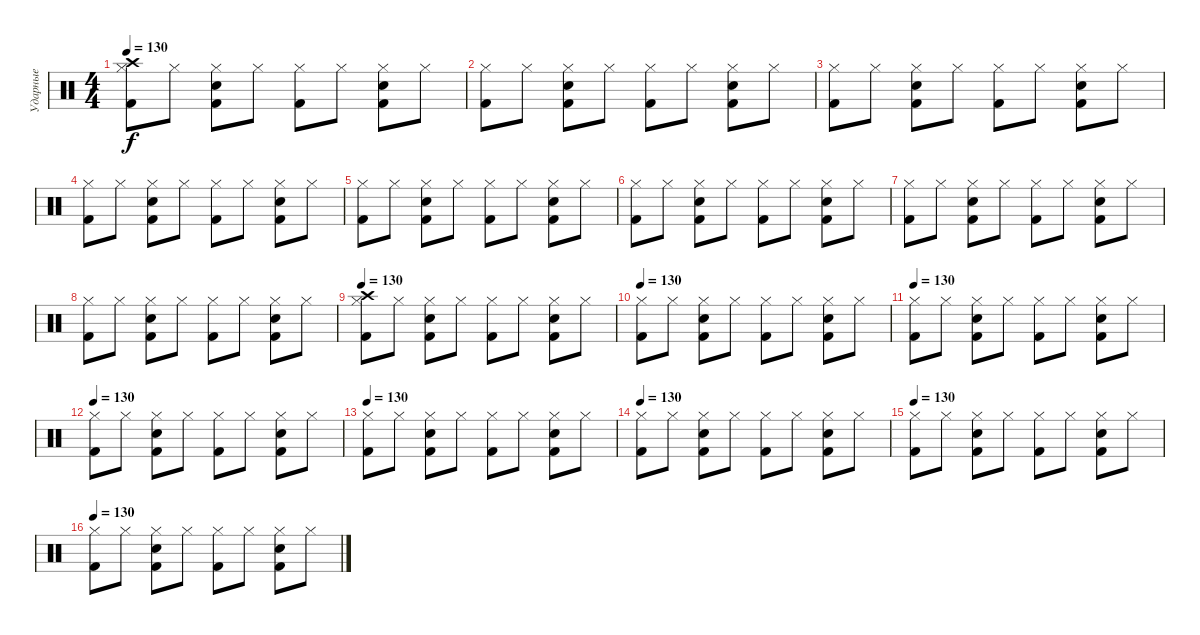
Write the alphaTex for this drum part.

\track ("Ударные" "Ударные") {instrument percussion}
\staff {score}
\articulation defaults
\ts (4 4)
\tempo 130
\clef neutral
\ks c
("Crash high (hit)" "Hi-Hat (closed)" "Kick (hit) 2").8{dy f} "Hi-Hat (closed)".8 ("Hi-Hat (closed)" "Snare (hit) 2" "Kick (hit) 2").8 "Hi-Hat (closed)".8 ("Hi-Hat (closed)" "Kick (hit) 2").8 "Hi-Hat (closed)".8 ("Hi-Hat (closed)" "Snare (hit) 2" "Kick (hit) 2").8 "Hi-Hat (closed)".8 |
("Hi-Hat (closed)" "Kick (hit) 2").8 "Hi-Hat (closed)".8 ("Hi-Hat (closed)" "Snare (hit) 2" "Kick (hit) 2").8 "Hi-Hat (closed)".8 ("Hi-Hat (closed)" "Kick (hit) 2").8 "Hi-Hat (closed)".8 ("Hi-Hat (closed)" "Snare (hit) 2" "Kick (hit) 2").8 "Hi-Hat (closed)".8 |
("Hi-Hat (closed)" "Kick (hit) 2").8 "Hi-Hat (closed)".8 ("Hi-Hat (closed)" "Snare (hit) 2" "Kick (hit) 2").8 "Hi-Hat (closed)".8 ("Hi-Hat (closed)" "Kick (hit) 2").8 "Hi-Hat (closed)".8 ("Hi-Hat (closed)" "Snare (hit) 2" "Kick (hit) 2").8 "Hi-Hat (closed)".8 |
("Hi-Hat (closed)" "Kick (hit) 2").8 "Hi-Hat (closed)".8 ("Hi-Hat (closed)" "Snare (hit) 2" "Kick (hit) 2").8 "Hi-Hat (closed)".8 ("Hi-Hat (closed)" "Kick (hit) 2").8 "Hi-Hat (closed)".8 ("Hi-Hat (closed)" "Snare (hit) 2" "Kick (hit) 2").8 "Hi-Hat (closed)".8 |
("Hi-Hat (closed)" "Kick (hit) 2").8 "Hi-Hat (closed)".8 ("Hi-Hat (closed)" "Snare (hit) 2" "Kick (hit) 2").8 "Hi-Hat (closed)".8 ("Hi-Hat (closed)" "Kick (hit) 2").8 "Hi-Hat (closed)".8 ("Hi-Hat (closed)" "Snare (hit) 2" "Kick (hit) 2").8 "Hi-Hat (closed)".8 |
("Hi-Hat (closed)" "Kick (hit) 2").8 "Hi-Hat (closed)".8 ("Hi-Hat (closed)" "Snare (hit) 2" "Kick (hit) 2").8 "Hi-Hat (closed)".8 ("Hi-Hat (closed)" "Kick (hit) 2").8 "Hi-Hat (closed)".8 ("Hi-Hat (closed)" "Snare (hit) 2" "Kick (hit) 2").8 "Hi-Hat (closed)".8 |
("Hi-Hat (closed)" "Kick (hit) 2").8 "Hi-Hat (closed)".8 ("Hi-Hat (closed)" "Snare (hit) 2" "Kick (hit) 2").8 "Hi-Hat (closed)".8 ("Hi-Hat (closed)" "Kick (hit) 2").8 "Hi-Hat (closed)".8 ("Hi-Hat (closed)" "Snare (hit) 2" "Kick (hit) 2").8 "Hi-Hat (closed)".8 |
("Hi-Hat (closed)" "Kick (hit) 2").8 "Hi-Hat (closed)".8 ("Hi-Hat (closed)" "Snare (hit) 2" "Kick (hit) 2").8 "Hi-Hat (closed)".8 ("Hi-Hat (closed)" "Kick (hit) 2").8 "Hi-Hat (closed)".8 ("Hi-Hat (closed)" "Snare (hit) 2" "Kick (hit) 2").8 "Hi-Hat (closed)".8 |
\tempo 130
("Crash high (hit)" "Hi-Hat (closed)" "Kick (hit) 2").8 "Hi-Hat (closed)".8 ("Hi-Hat (closed)" "Snare (hit) 2" "Kick (hit) 2").8 "Hi-Hat (closed)".8 ("Hi-Hat (closed)" "Kick (hit) 2").8 "Hi-Hat (closed)".8 ("Hi-Hat (closed)" "Snare (hit) 2" "Kick (hit) 2").8 "Hi-Hat (closed)".8 |
\tempo 130
("Hi-Hat (closed)" "Kick (hit) 2").8 "Hi-Hat (closed)".8 ("Hi-Hat (closed)" "Snare (hit) 2" "Kick (hit) 2").8 "Hi-Hat (closed)".8 ("Hi-Hat (closed)" "Kick (hit) 2").8 "Hi-Hat (closed)".8 ("Hi-Hat (closed)" "Snare (hit) 2" "Kick (hit) 2").8 "Hi-Hat (closed)".8 |
\tempo 130
("Hi-Hat (closed)" "Kick (hit) 2").8 "Hi-Hat (closed)".8 ("Hi-Hat (closed)" "Snare (hit) 2" "Kick (hit) 2").8 "Hi-Hat (closed)".8 ("Hi-Hat (closed)" "Kick (hit) 2").8 "Hi-Hat (closed)".8 ("Hi-Hat (closed)" "Snare (hit) 2" "Kick (hit) 2").8 "Hi-Hat (closed)".8 |
\tempo 130
("Hi-Hat (closed)" "Kick (hit) 2").8 "Hi-Hat (closed)".8 ("Hi-Hat (closed)" "Snare (hit) 2" "Kick (hit) 2").8 "Hi-Hat (closed)".8 ("Hi-Hat (closed)" "Kick (hit) 2").8 "Hi-Hat (closed)".8 ("Hi-Hat (closed)" "Snare (hit) 2" "Kick (hit) 2").8 "Hi-Hat (closed)".8 |
\tempo 130
("Hi-Hat (closed)" "Kick (hit) 2").8 "Hi-Hat (closed)".8 ("Hi-Hat (closed)" "Snare (hit) 2" "Kick (hit) 2").8 "Hi-Hat (closed)".8 ("Hi-Hat (closed)" "Kick (hit) 2").8 "Hi-Hat (closed)".8 ("Hi-Hat (closed)" "Snare (hit) 2" "Kick (hit) 2").8 "Hi-Hat (closed)".8 |
\tempo 130
("Hi-Hat (closed)" "Kick (hit) 2").8 "Hi-Hat (closed)".8 ("Hi-Hat (closed)" "Snare (hit) 2" "Kick (hit) 2").8 "Hi-Hat (closed)".8 ("Hi-Hat (closed)" "Kick (hit) 2").8 "Hi-Hat (closed)".8 ("Hi-Hat (closed)" "Snare (hit) 2" "Kick (hit) 2").8 "Hi-Hat (closed)".8 |
\tempo 130
("Hi-Hat (closed)" "Kick (hit) 2").8 "Hi-Hat (closed)".8 ("Hi-Hat (closed)" "Snare (hit) 2" "Kick (hit) 2").8 "Hi-Hat (closed)".8 ("Hi-Hat (closed)" "Kick (hit) 2").8 "Hi-Hat (closed)".8 ("Hi-Hat (closed)" "Snare (hit) 2" "Kick (hit) 2").8 "Hi-Hat (closed)".8 |
\tempo 130
("Hi-Hat (closed)" "Kick (hit) 2").8 "Hi-Hat (closed)".8 ("Hi-Hat (closed)" "Snare (hit) 2" "Kick (hit) 2").8 "Hi-Hat (closed)".8 ("Hi-Hat (closed)" "Kick (hit) 2").8 "Hi-Hat (closed)".8 ("Hi-Hat (closed)" "Snare (hit) 2" "Kick (hit) 2").8 "Hi-Hat (closed)".8
